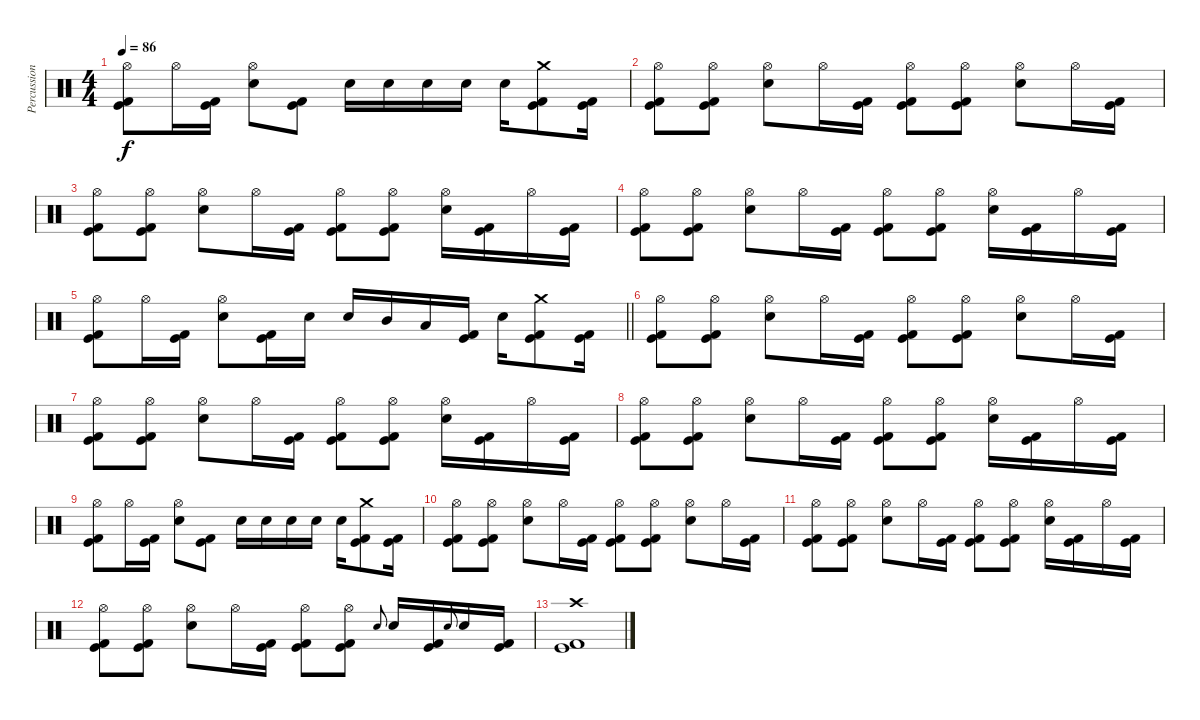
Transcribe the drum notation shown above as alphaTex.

\track ("Percussion" "Percussion") {instrument percussion}
\staff {score}
\articulation defaults
\ts (4 4)
\tempo 86
\clef neutral
\ks c
("Hi-Hat (open)" "Kick (hit)" "Kick (hit) 2").8{dy f} "Hi-Hat (open)".16 ("Kick (hit)" "Kick (hit) 2").16 ("Hi-Hat (open)" "Electric Snare (hit)").8 ("Kick (hit)" "Kick (hit) 2").8 "Electric Snare (hit)".16 "Electric Snare (hit)".16 "Electric Snare (hit)".16 "Electric Snare (hit)".16 "Electric Snare (hit)".16 ("Crash medium (hit)" "Kick (hit)" "Kick (hit) 2").8 ("Kick (hit)" "Kick (hit) 2").16 |
("Hi-Hat (open)" "Kick (hit)" "Kick (hit) 2").8 ("Hi-Hat (open)" "Kick (hit)" "Kick (hit) 2").8 ("Hi-Hat (open)" "Electric Snare (hit)").8 "Hi-Hat (open)".16 ("Kick (hit)" "Kick (hit) 2").16 ("Hi-Hat (open)" "Kick (hit)" "Kick (hit) 2").8 ("Hi-Hat (open)" "Kick (hit)" "Kick (hit) 2").8 ("Hi-Hat (open)" "Electric Snare (hit)").8 "Hi-Hat (open)".16 ("Kick (hit)" "Kick (hit) 2").16 |
("Hi-Hat (open)" "Kick (hit)" "Kick (hit) 2").8 ("Hi-Hat (open)" "Kick (hit)" "Kick (hit) 2").8 ("Hi-Hat (open)" "Electric Snare (hit)").8 "Hi-Hat (open)".16 ("Kick (hit)" "Kick (hit) 2").16 ("Hi-Hat (open)" "Kick (hit)" "Kick (hit) 2").8 ("Hi-Hat (open)" "Kick (hit)" "Kick (hit) 2").8 ("Hi-Hat (open)" "Electric Snare (hit)").16 ("Kick (hit)" "Kick (hit) 2").16 "Hi-Hat (open)".16 ("Kick (hit)" "Kick (hit) 2").16 |
("Hi-Hat (open)" "Kick (hit)" "Kick (hit) 2").8 ("Hi-Hat (open)" "Kick (hit)" "Kick (hit) 2").8 ("Hi-Hat (open)" "Electric Snare (hit)").8 "Hi-Hat (open)".16 ("Kick (hit)" "Kick (hit) 2").16 ("Hi-Hat (open)" "Kick (hit)" "Kick (hit) 2").8 ("Hi-Hat (open)" "Kick (hit)" "Kick (hit) 2").8 ("Hi-Hat (open)" "Electric Snare (hit)").16 ("Kick (hit)" "Kick (hit) 2").16 "Hi-Hat (open)".16 ("Kick (hit)" "Kick (hit) 2").16 |
\barLineRight lightlight
("Hi-Hat (open)" "Kick (hit)" "Kick (hit) 2").8 "Hi-Hat (open)".16 ("Kick (hit)" "Kick (hit) 2").16 ("Hi-Hat (open)" "Electric Snare (hit)").8 ("Kick (hit)" "Kick (hit) 2").16 "Electric Snare (hit)".16 "Electric Snare (hit)".16 "Mid Tom (hit)".16 "Low Tom (hit)".16 ("Kick (hit)" "Kick (hit) 2").16 "Electric Snare (hit)".16 ("Crash medium (hit)" "Kick (hit)" "Kick (hit) 2").8 ("Kick (hit)" "Kick (hit) 2").16 |
\section ("" "")
("Hi-Hat (open)" "Kick (hit)" "Kick (hit) 2").8 ("Hi-Hat (open)" "Kick (hit)" "Kick (hit) 2").8 ("Hi-Hat (open)" "Electric Snare (hit)").8 "Hi-Hat (open)".16 ("Kick (hit)" "Kick (hit) 2").16 ("Hi-Hat (open)" "Kick (hit)" "Kick (hit) 2").8 ("Hi-Hat (open)" "Kick (hit)" "Kick (hit) 2").8 ("Hi-Hat (open)" "Electric Snare (hit)").8 "Hi-Hat (open)".16 ("Kick (hit)" "Kick (hit) 2").16 |
("Hi-Hat (open)" "Kick (hit)" "Kick (hit) 2").8 ("Hi-Hat (open)" "Kick (hit)" "Kick (hit) 2").8 ("Hi-Hat (open)" "Electric Snare (hit)").8 "Hi-Hat (open)".16 ("Kick (hit)" "Kick (hit) 2").16 ("Hi-Hat (open)" "Kick (hit)" "Kick (hit) 2").8 ("Hi-Hat (open)" "Kick (hit)" "Kick (hit) 2").8 ("Hi-Hat (open)" "Electric Snare (hit)").16 ("Kick (hit)" "Kick (hit) 2").16 "Hi-Hat (open)".16 ("Kick (hit)" "Kick (hit) 2").16 |
("Hi-Hat (open)" "Kick (hit)" "Kick (hit) 2").8 ("Hi-Hat (open)" "Kick (hit)" "Kick (hit) 2").8 ("Hi-Hat (open)" "Electric Snare (hit)").8 "Hi-Hat (open)".16 ("Kick (hit)" "Kick (hit) 2").16 ("Hi-Hat (open)" "Kick (hit)" "Kick (hit) 2").8 ("Hi-Hat (open)" "Kick (hit)" "Kick (hit) 2").8 ("Hi-Hat (open)" "Electric Snare (hit)").16 ("Kick (hit)" "Kick (hit) 2").16 "Hi-Hat (open)".16 ("Kick (hit)" "Kick (hit) 2").16 |
("Hi-Hat (open)" "Kick (hit)" "Kick (hit) 2").8 "Hi-Hat (open)".16 ("Kick (hit)" "Kick (hit) 2").16 ("Hi-Hat (open)" "Electric Snare (hit)").8 ("Kick (hit)" "Kick (hit) 2").8 "Electric Snare (hit)".16 "Electric Snare (hit)".16 "Electric Snare (hit)".16 "Electric Snare (hit)".16 "Electric Snare (hit)".16 ("Crash medium (hit)" "Kick (hit)" "Kick (hit) 2").8 ("Kick (hit)" "Kick (hit) 2").16 |
("Hi-Hat (open)" "Kick (hit)" "Kick (hit) 2").8 ("Hi-Hat (open)" "Kick (hit)" "Kick (hit) 2").8 ("Hi-Hat (open)" "Electric Snare (hit)").8 "Hi-Hat (open)".16 ("Kick (hit)" "Kick (hit) 2").16 ("Hi-Hat (open)" "Kick (hit)" "Kick (hit) 2").8 ("Hi-Hat (open)" "Kick (hit)" "Kick (hit) 2").8 ("Hi-Hat (open)" "Electric Snare (hit)").8 "Hi-Hat (open)".16 ("Kick (hit)" "Kick (hit) 2").16 |
("Hi-Hat (open)" "Kick (hit)" "Kick (hit) 2").8 ("Hi-Hat (open)" "Kick (hit)" "Kick (hit) 2").8 ("Hi-Hat (open)" "Electric Snare (hit)").8 "Hi-Hat (open)".16 ("Kick (hit)" "Kick (hit) 2").16 ("Hi-Hat (open)" "Kick (hit)" "Kick (hit) 2").8 ("Hi-Hat (open)" "Kick (hit)" "Kick (hit) 2").8 ("Hi-Hat (open)" "Electric Snare (hit)").16 ("Kick (hit)" "Kick (hit) 2").16 "Hi-Hat (open)".16 ("Kick (hit)" "Kick (hit) 2").16 |
("Hi-Hat (open)" "Kick (hit)" "Kick (hit) 2").8 ("Hi-Hat (open)" "Kick (hit)" "Kick (hit) 2").8 ("Hi-Hat (open)" "Electric Snare (hit)").8 "Hi-Hat (open)".16 ("Kick (hit)" "Kick (hit) 2").16 ("Hi-Hat (open)" "Kick (hit)" "Kick (hit) 2").8 ("Hi-Hat (open)" "Kick (hit)" "Kick (hit) 2").8 "Electric Snare (hit)".8{gr onbeat} "Electric Snare (hit)".16 ("Kick (hit)" "Kick (hit) 2").16 "Electric Snare (hit)".8{gr onbeat} "Electric Snare (hit)".16 ("Kick (hit)" "Kick (hit) 2").16 |
("Crash high (hit)" "Kick (hit)" "Kick (hit) 2").1
